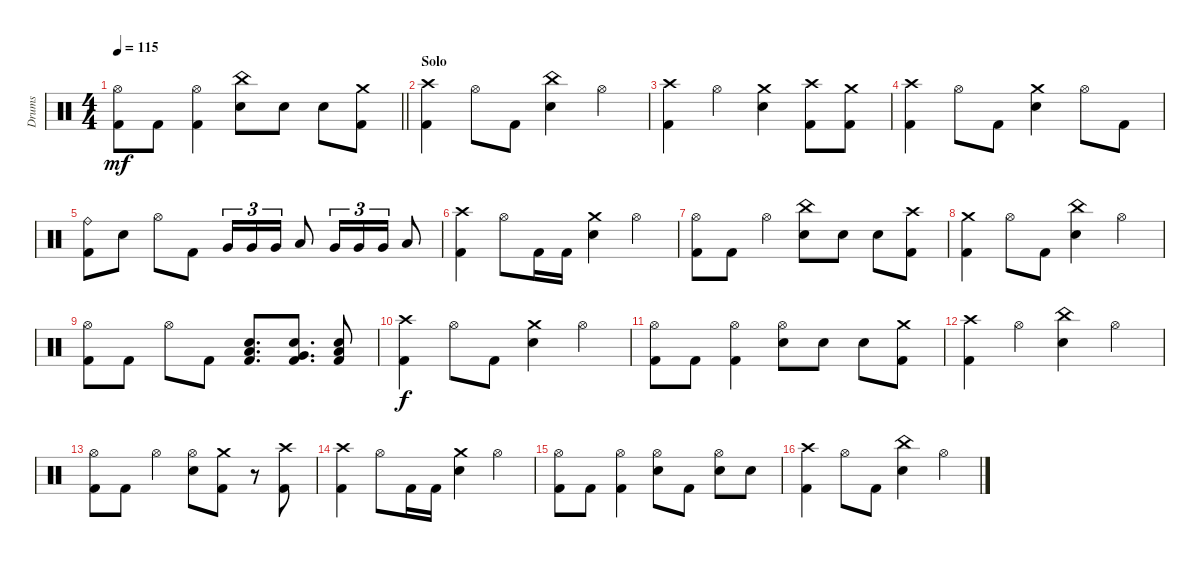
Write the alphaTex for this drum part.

\track ("Drums" "Drums") {instrument percussion}
\staff {score}
\articulation defaults
\ts (4 4)
\tempo 115
\clef neutral
\barLineRight lightlight
\ks c
("Hi-Hat (open)" "Kick (hit) 2").8{dy mf} "Kick (hit) 2".8 ("Hi-Hat (open)" "Kick (hit) 2").4 ("China (hit)" "Electric Snare (hit)").8 "Electric Snare (hit)".8 "Electric Snare (hit)".8 ("Crash medium (hit)" "Kick (hit) 2").8 |
\section ("" "Solo")
("Crash high (hit)" "Kick (hit) 2").4 "Hi-Hat (open)".8 "Kick (hit) 2".8 ("China (hit)" "Electric Snare (hit)").4 "Hi-Hat (open)".4 |
("Crash high (hit)" "Kick (hit) 2").4 "Hi-Hat (open)".4 ("Crash medium (hit)" "Electric Snare (hit)").4 ("Crash high (hit)" "Kick (hit) 2").8 ("Crash medium (hit)" "Kick (hit) 2").8 |
("Crash high (hit)" "Kick (hit) 2").4 "Hi-Hat (open)".8 "Kick (hit) 2".8 ("Crash medium (hit)" "Electric Snare (hit)").4 "Hi-Hat (open)".8 "Kick (hit) 2".8 |
("Ride (bell)" "Kick (hit) 2").8 "Electric Snare (hit)".8 "Hi-Hat (open)".8 "Kick (hit) 2".8 "Very Low Tom (hit)".16{tu (3 2)} "Very Low Tom (hit)".16{tu (3 2)} "Very Low Tom (hit)".16{tu (3 2)} "Low Floor Tom (hit)".8 "Very Low Tom (hit)".16{tu (3 2)} "Very Low Tom (hit)".16{tu (3 2)} "Very Low Tom (hit)".16{tu (3 2)} "Low Floor Tom (hit)".8 |
("Crash high (hit)" "Kick (hit) 2").4 "Hi-Hat (open)".8 "Kick (hit) 2".16 "Kick (hit) 2".16 ("Crash medium (hit)" "Electric Snare (hit)").4 "Hi-Hat (open)".4 |
("Hi-Hat (open)" "Kick (hit) 2").8 "Kick (hit) 2".8 "Hi-Hat (open)".4 ("China (hit)" "Electric Snare (hit)").8 "Electric Snare (hit)".8 "Electric Snare (hit)".8 ("Crash high (hit)" "Kick (hit) 2").8 |
("Crash medium (hit)" "Kick (hit) 2").4 "Hi-Hat (open)".8 "Kick (hit) 2".8 ("China (hit)" "Electric Snare (hit)").4 "Hi-Hat (open)".4 |
("Hi-Hat (open)" "Kick (hit) 2").8 "Kick (hit) 2".8 "Hi-Hat (open)".8 "Kick (hit) 2".8 ("Low Tom (hit)" "Electric Snare (hit)" "Kick (hit) 2").8{d} ("Very Low Tom (hit)" "Electric Snare (hit)" "Kick (hit) 2").8{d} ("Low Floor Tom (hit)" "Electric Snare (hit)" "Kick (hit) 2").8 |
("Crash high (hit)" "Kick (hit) 2").4{dy f} "Hi-Hat (open)".8 "Kick (hit) 2".8 ("Crash medium (hit)" "Electric Snare (hit)").4 "Hi-Hat (open)".4 |
("Hi-Hat (open)" "Kick (hit) 2").8 "Kick (hit) 2".8 ("Hi-Hat (open)" "Kick (hit) 2").4 ("Hi-Hat (open)" "Electric Snare (hit)").8 "Electric Snare (hit)".8 "Electric Snare (hit)".8 ("Crash medium (hit)" "Kick (hit) 2").8 |
("Crash high (hit)" "Kick (hit) 2").4 "Hi-Hat (open)".4 ("China (hit)" "Electric Snare (hit)").4 "Hi-Hat (open)".4 |
("Hi-Hat (open)" "Kick (hit) 2").8 "Kick (hit) 2".8 "Hi-Hat (open)".4 ("Hi-Hat (open)" "Electric Snare (hit)").8 ("Crash medium (hit)" "Kick (hit) 2").8 r.8 ("Crash high (hit)" "Kick (hit) 2").8 |
("Crash high (hit)" "Kick (hit) 2").4 "Hi-Hat (open)".8 "Kick (hit) 2".16 "Kick (hit) 2".16 ("Crash medium (hit)" "Electric Snare (hit)").4 "Hi-Hat (open)".4 |
("Hi-Hat (open)" "Kick (hit) 2").8 "Kick (hit) 2".8 ("Hi-Hat (open)" "Kick (hit) 2").4 ("Hi-Hat (open)" "Electric Snare (hit)").8 "Kick (hit) 2".8 ("Hi-Hat (open)" "Electric Snare (hit)").8 "Electric Snare (hit)".8 |
("Crash high (hit)" "Kick (hit) 2").4 "Hi-Hat (open)".8 "Kick (hit) 2".8 ("China (hit)" "Electric Snare (hit)").4 "Hi-Hat (open)".4
